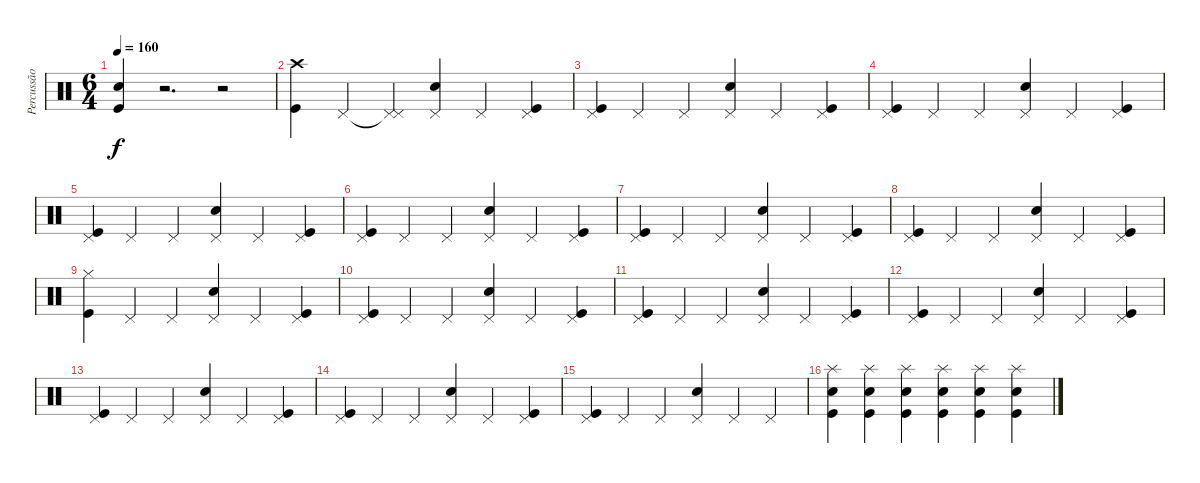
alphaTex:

\track ("Percussão" "Percussão") {instrument percussion}
\staff {score}
\articulation defaults
\ts (6 4)
\tempo 160
\clef neutral
\ks c
("Snare (hit) 2" "Kick (hit)").4{dy f} r.2{d} r.2 |
("Crash high (hit)" "Kick (hit)").4 "Pedal Hi-Hat (hit)".4 ("Pedal Hi-Hat (hit)"{t} "Pedal Hi-Hat (hit)").4 ("Pedal Hi-Hat (hit)" "Snare (hit) 2").4 "Pedal Hi-Hat (hit)".4 ("Pedal Hi-Hat (hit)" "Kick (hit)").4 |
("Pedal Hi-Hat (hit)" "Kick (hit)").4 "Pedal Hi-Hat (hit)".4 "Pedal Hi-Hat (hit)".4 ("Pedal Hi-Hat (hit)" "Snare (hit) 2").4 "Pedal Hi-Hat (hit)".4 ("Pedal Hi-Hat (hit)" "Kick (hit)").4 |
("Pedal Hi-Hat (hit)" "Kick (hit)").4 "Pedal Hi-Hat (hit)".4 "Pedal Hi-Hat (hit)".4 ("Pedal Hi-Hat (hit)" "Snare (hit) 2").4 "Pedal Hi-Hat (hit)".4 ("Pedal Hi-Hat (hit)" "Kick (hit)").4 |
("Pedal Hi-Hat (hit)" "Kick (hit)").4 "Pedal Hi-Hat (hit)".4 "Pedal Hi-Hat (hit)".4 ("Pedal Hi-Hat (hit)" "Snare (hit) 2").4 "Pedal Hi-Hat (hit)".4 ("Pedal Hi-Hat (hit)" "Kick (hit)").4 |
("Pedal Hi-Hat (hit)" "Kick (hit)").4 "Pedal Hi-Hat (hit)".4 "Pedal Hi-Hat (hit)".4 ("Pedal Hi-Hat (hit)" "Snare (hit) 2").4 "Pedal Hi-Hat (hit)".4 ("Pedal Hi-Hat (hit)" "Kick (hit)").4 |
("Pedal Hi-Hat (hit)" "Kick (hit)").4 "Pedal Hi-Hat (hit)".4 "Pedal Hi-Hat (hit)".4 ("Pedal Hi-Hat (hit)" "Snare (hit) 2").4 "Pedal Hi-Hat (hit)".4 ("Pedal Hi-Hat (hit)" "Kick (hit)").4 |
("Pedal Hi-Hat (hit)" "Kick (hit)").4 "Pedal Hi-Hat (hit)".4 "Pedal Hi-Hat (hit)".4 ("Pedal Hi-Hat (hit)" "Snare (hit) 2").4 "Pedal Hi-Hat (hit)".4 ("Pedal Hi-Hat (hit)" "Kick (hit)").4 |
("Hi-Hat (closed)" "Kick (hit)").4 "Pedal Hi-Hat (hit)".4 "Pedal Hi-Hat (hit)".4 ("Pedal Hi-Hat (hit)" "Snare (hit) 2").4 "Pedal Hi-Hat (hit)".4 ("Pedal Hi-Hat (hit)" "Kick (hit)").4 |
("Pedal Hi-Hat (hit)" "Kick (hit)").4 "Pedal Hi-Hat (hit)".4 "Pedal Hi-Hat (hit)".4 ("Pedal Hi-Hat (hit)" "Snare (hit) 2").4 "Pedal Hi-Hat (hit)".4 ("Pedal Hi-Hat (hit)" "Kick (hit)").4 |
("Pedal Hi-Hat (hit)" "Kick (hit)").4 "Pedal Hi-Hat (hit)".4 "Pedal Hi-Hat (hit)".4 ("Pedal Hi-Hat (hit)" "Snare (hit) 2").4 "Pedal Hi-Hat (hit)".4 ("Pedal Hi-Hat (hit)" "Kick (hit)").4 |
("Pedal Hi-Hat (hit)" "Kick (hit)").4 "Pedal Hi-Hat (hit)".4 "Pedal Hi-Hat (hit)".4 ("Pedal Hi-Hat (hit)" "Snare (hit) 2").4 "Pedal Hi-Hat (hit)".4 ("Pedal Hi-Hat (hit)" "Kick (hit)").4 |
("Pedal Hi-Hat (hit)" "Kick (hit)").4 "Pedal Hi-Hat (hit)".4 "Pedal Hi-Hat (hit)".4 ("Pedal Hi-Hat (hit)" "Snare (hit) 2").4 "Pedal Hi-Hat (hit)".4 ("Pedal Hi-Hat (hit)" "Kick (hit)").4 |
("Pedal Hi-Hat (hit)" "Kick (hit)").4 "Pedal Hi-Hat (hit)".4 "Pedal Hi-Hat (hit)".4 ("Pedal Hi-Hat (hit)" "Snare (hit) 2").4 "Pedal Hi-Hat (hit)".4 ("Pedal Hi-Hat (hit)" "Kick (hit)").4 |
("Pedal Hi-Hat (hit)" "Kick (hit)").4 "Pedal Hi-Hat (hit)".4 "Pedal Hi-Hat (hit)".4 ("Pedal Hi-Hat (hit)" "Snare (hit) 2").4 "Pedal Hi-Hat (hit)".4 "Pedal Hi-Hat (hit)".4 |
("Splash (hit)" "Snare (hit) 2" "Kick (hit)").4 ("Splash (hit)" "Snare (hit) 2" "Kick (hit)").4 ("Splash (hit)" "Snare (hit) 2" "Kick (hit)").4 ("Splash (hit)" "Snare (hit) 2" "Kick (hit)").4 ("Splash (hit)" "Snare (hit) 2" "Kick (hit)").4 ("Splash (hit)" "Snare (hit) 2" "Kick (hit)").4
